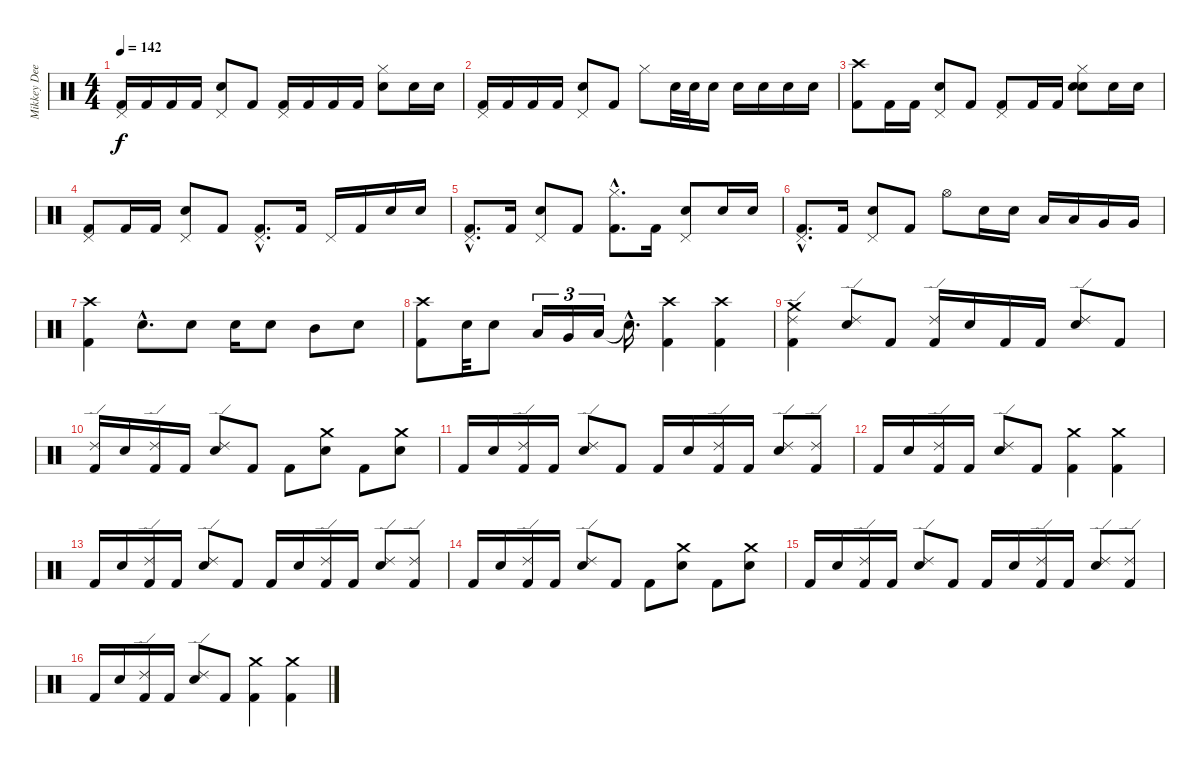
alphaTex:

\track ("Mikkey Dee" "Mikkey Dee") {instrument percussion}
\staff {score}
\articulation defaults
\ts (4 4)
\tempo 142
\clef neutral
\ks c
("Kick (hit) 2" "Pedal Hi-Hat (hit)").16{dy f} "Kick (hit) 2".16 "Kick (hit) 2".16 "Kick (hit) 2".16 ("Pedal Hi-Hat (hit)" "Snare (hit) 2").8 "Kick (hit) 2".8 ("Kick (hit) 2" "Pedal Hi-Hat (hit)").16 "Kick (hit) 2".16 "Kick (hit) 2".16 "Kick (hit) 2".16 ("Hi-Hat (closed)" "Snare (hit) 2").8 "Snare (hit) 2".16 "Snare (hit) 2".16 |
("Kick (hit) 2" "Pedal Hi-Hat (hit)").16 "Kick (hit) 2".16 "Kick (hit) 2".16 "Kick (hit) 2".16 ("Pedal Hi-Hat (hit)" "Snare (hit) 2").8 "Kick (hit) 2".8 "Hi-Hat (closed)".8 "Snare (hit) 2".32 "Snare (hit) 2".32 "Snare (hit) 2".16 "Snare (hit) 2".16 "Snare (hit) 2".16 "Snare (hit) 2".16 "Snare (hit) 2".16 |
("Kick (hit) 2" "Crash high (hit)").8 "Kick (hit) 2".16 "Kick (hit) 2".16 ("Pedal Hi-Hat (hit)" "Snare (hit) 2").8 "Kick (hit) 2".8 ("Kick (hit) 2" "Pedal Hi-Hat (hit)").8 "Kick (hit) 2".16 "Kick (hit) 2".16 ("Hi-Hat (closed)" "Snare (hit) 2" "Snare (hit) 2").8 "Snare (hit) 2".16 "Snare (hit) 2".16 |
("Kick (hit) 2" "Pedal Hi-Hat (hit)").8 "Kick (hit) 2".16 "Kick (hit) 2".16 ("Pedal Hi-Hat (hit)" "Snare (hit) 2").8 "Kick (hit) 2".8 ("Kick (hit) 2"{hac} "Pedal Hi-Hat (hit)"{hac}).8{d} "Kick (hit) 2".16 "Pedal Hi-Hat (hit)".16 "Kick (hit) 2".16 "Snare (hit) 2".16 "Snare (hit) 2".16 |
("Kick (hit) 2"{hac} "Pedal Hi-Hat (hit)"{hac}).8{d} "Kick (hit) 2".16 ("Pedal Hi-Hat (hit)" "Snare (hit) 2").8 "Kick (hit) 2".8 ("Hi-Hat (closed)"{hac} "Kick (hit) 2"{hac}).8{d} "Kick (hit) 2".16 ("Pedal Hi-Hat (hit)" "Snare (hit) 2").8 "Snare (hit) 2".16 "Snare (hit) 2".16 |
("Kick (hit) 2"{hac} "Pedal Hi-Hat (hit)"{hac}).8{d} "Kick (hit) 2".16 ("Pedal Hi-Hat (hit)" "Snare (hit) 2").8 "Kick (hit) 2".8 "Hi-Hat (open)".8 "Snare (hit) 2".16 "Snare (hit) 2".16 "Low Tom (hit)".16 "Low Tom (hit)".16 "Very Low Tom (hit)".16 "Very Low Tom (hit)".16 |
("Kick (hit) 2" "Crash high (hit)").4 "Snare (hit) 2"{hac}.8{d} "Snare (hit) 2".8 "Snare (hit) 2".16 "Snare (hit) 2".8 "Mid Tom (hit)".8 "Snare (hit) 2".8 |
("Kick (hit) 2" "Crash high (hit)").8 "Snare (hit) 2".32 "Snare (hit) 2".8 "Low Tom (hit)".16{tu (3 2)} "Very Low Tom (hit)".16{tu (3 2)} "Low Floor Tom (hit)".16{tu (3 2)} "Snare (hit)"{hac t}.16{d} ("Kick (hit) 2" "Crash high (hit)").4 ("Kick (hit) 2" "Crash high (hit)").4 |
("Kick (hit) 2" "Ride (edge) 2" "Crash medium (hit)").4 ("Ride (edge) 2" "Snare (hit) 2").8 "Kick (hit) 2".8 ("Kick (hit) 2" "Ride (edge) 2").16 "Snare (hit) 2".16 "Kick (hit) 2".16 "Kick (hit) 2".16 ("Ride (edge) 2" "Snare (hit) 2").8 "Kick (hit) 2".8 |
("Kick (hit) 2" "Ride (edge) 2").16 "Snare (hit) 2".16 ("Kick (hit) 2" "Ride (edge) 2").16 "Kick (hit) 2".16 ("Ride (edge) 2" "Snare (hit) 2").8 "Kick (hit) 2".8 "Kick (hit) 2".8 ("Crash medium (hit)" "Snare (hit) 2").8 "Kick (hit) 2".8 ("Crash medium (hit)" "Snare (hit) 2").8 |
"Kick (hit) 2".16 "Snare (hit) 2".16 ("Kick (hit) 2" "Ride (edge) 2").16 "Kick (hit) 2".16 ("Ride (edge) 2" "Snare (hit) 2").8 "Kick (hit) 2".8 "Kick (hit) 2".16 "Snare (hit) 2".16 ("Kick (hit) 2" "Ride (edge) 2").16 "Kick (hit) 2".16 ("Ride (edge) 2" "Snare (hit) 2").8 ("Kick (hit) 2" "Ride (edge) 2").8 |
"Kick (hit) 2".16 "Snare (hit) 2".16 ("Kick (hit) 2" "Ride (edge) 2").16 "Kick (hit) 2".16 ("Ride (edge) 2" "Snare (hit) 2").8 "Kick (hit) 2".8 ("Kick (hit) 2" "Crash medium (hit)").4 ("Kick (hit) 2" "Crash medium (hit)").4 |
"Kick (hit) 2".16 "Snare (hit) 2".16 ("Kick (hit) 2" "Ride (edge) 2").16 "Kick (hit) 2".16 ("Ride (edge) 2" "Snare (hit) 2").8 "Kick (hit) 2".8 "Kick (hit) 2".16 "Snare (hit) 2".16 ("Kick (hit) 2" "Ride (edge) 2").16 "Kick (hit) 2".16 ("Ride (edge) 2" "Snare (hit) 2").8 ("Kick (hit) 2" "Ride (edge) 2").8 |
"Kick (hit) 2".16 "Snare (hit) 2".16 ("Kick (hit) 2" "Ride (edge) 2").16 "Kick (hit) 2".16 ("Ride (edge) 2" "Snare (hit) 2").8 "Kick (hit) 2".8 "Kick (hit) 2".8 ("Crash medium (hit)" "Snare (hit) 2").8 "Kick (hit) 2".8 ("Crash medium (hit)" "Snare (hit) 2").8 |
"Kick (hit) 2".16 "Snare (hit) 2".16 ("Kick (hit) 2" "Ride (edge) 2").16 "Kick (hit) 2".16 ("Ride (edge) 2" "Snare (hit) 2").8 "Kick (hit) 2".8 "Kick (hit) 2".16 "Snare (hit) 2".16 ("Kick (hit) 2" "Ride (edge) 2").16 "Kick (hit) 2".16 ("Ride (edge) 2" "Snare (hit) 2").8 ("Kick (hit) 2" "Ride (edge) 2").8 |
"Kick (hit) 2".16 "Snare (hit) 2".16 ("Kick (hit) 2" "Ride (edge) 2").16 "Kick (hit) 2".16 ("Ride (edge) 2" "Snare (hit) 2").8 "Kick (hit) 2".8 ("Kick (hit) 2" "Crash medium (hit)").4 ("Kick (hit) 2" "Crash medium (hit)").4
